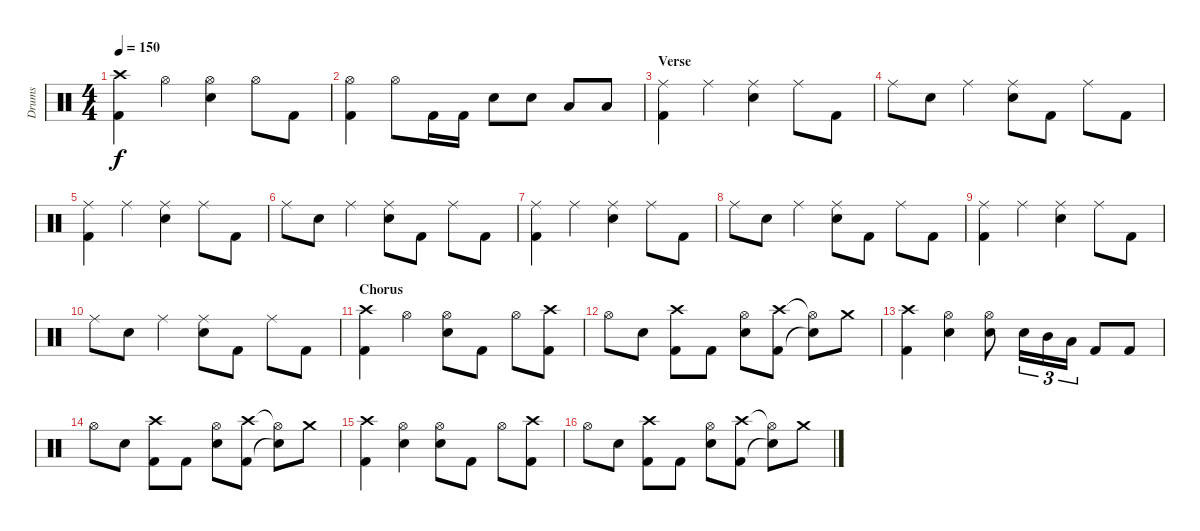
\track ("Drums" "Drums") {instrument percussion}
\staff {score}
\articulation defaults
\ts (4 4)
\tempo 150
\clef neutral
\ks c
("Crash high (hit)" "Kick (hit) 2").4{dy f} "Hi-Hat (open)".4 ("Hi-Hat (open)" "Electric Snare (hit)").4 "Hi-Hat (open)".8 "Kick (hit) 2".8 |
("Hi-Hat (open)" "Kick (hit) 2").4 "Hi-Hat (open)".8 "Kick (hit) 2".16 "Kick (hit) 2".16 "Electric Snare (hit)".8 "Electric Snare (hit)".8 "Low Tom (hit)".8 "Low Tom (hit)".8 |
\section ("" "Verse")
("Ride (middle)" "Kick (hit) 2").4 "Ride (middle)".4 ("Ride (middle)" "Electric Snare (hit)").4 "Ride (middle)".8 "Kick (hit) 2".8 |
"Ride (middle)".8 "Electric Snare (hit)".8 "Ride (middle)".4 ("Ride (middle)" "Electric Snare (hit)").8 "Kick (hit) 2".8 "Ride (middle)".8 "Kick (hit) 2".8 |
("Ride (middle)" "Kick (hit) 2").4 "Ride (middle)".4 ("Ride (middle)" "Electric Snare (hit)").4 "Ride (middle)".8 "Kick (hit) 2".8 |
"Ride (middle)".8 "Electric Snare (hit)".8 "Ride (middle)".4 ("Ride (middle)" "Electric Snare (hit)").8 "Kick (hit) 2".8 "Ride (middle)".8 "Kick (hit) 2".8 |
("Ride (middle)" "Kick (hit) 2").4 "Ride (middle)".4 ("Ride (middle)" "Electric Snare (hit)").4 "Ride (middle)".8 "Kick (hit) 2".8 |
"Ride (middle)".8 "Electric Snare (hit)".8 "Ride (middle)".4 ("Ride (middle)" "Electric Snare (hit)").8 "Kick (hit) 2".8 "Ride (middle)".8 "Kick (hit) 2".8 |
("Ride (middle)" "Kick (hit) 2").4 "Ride (middle)".4 ("Ride (middle)" "Electric Snare (hit)").4 "Ride (middle)".8 "Kick (hit) 2".8 |
"Ride (middle)".8 "Electric Snare (hit)".8 "Ride (middle)".4 ("Ride (middle)" "Electric Snare (hit)").8 "Kick (hit) 2".8 "Ride (middle)".8 "Kick (hit) 2".8 |
\section ("" "Chorus")
("Crash high (hit)" "Kick (hit) 2").4 "Hi-Hat (open)".4 ("Hi-Hat (open)" "Electric Snare (hit)").8 "Kick (hit) 2".8 "Hi-Hat (open)".8 ("Crash high (hit)" "Kick (hit) 2").8 |
"Hi-Hat (open)".8 "Electric Snare (hit)".8 ("Crash high (hit)" "Kick (hit) 2").8 "Kick (hit) 2".8 ("Hi-Hat (open)" "Electric Snare (hit)").8 ("Crash high (hit)" "Kick (hit) 2").8 ("Hi-Hat (open)"{t} "Snare (hit)"{t}).8 "Crash medium (hit)".8 |
("Crash high (hit)" "Kick (hit) 2").4 ("Hi-Hat (open)" "Electric Snare (hit)").4 ("Hi-Hat (open)" "Electric Snare (hit)").8 "Electric Snare (hit)".16{tu (3 2)} "Mid Tom (hit)".16{tu (3 2)} "Low Tom (hit)".16{tu (3 2)} "Kick (hit) 2".8 "Kick (hit) 2".8 |
"Hi-Hat (open)".8 "Electric Snare (hit)".8 ("Crash high (hit)" "Kick (hit) 2").8 "Kick (hit) 2".8 ("Hi-Hat (open)" "Electric Snare (hit)").8 ("Crash high (hit)" "Kick (hit) 2").8 ("Hi-Hat (open)"{t} "Snare (hit)"{t}).8 "Crash medium (hit)".8 |
("Crash high (hit)" "Kick (hit) 2").4 ("Hi-Hat (open)" "Electric Snare (hit)").4 ("Hi-Hat (open)" "Electric Snare (hit)").8 "Kick (hit) 2".8 "Hi-Hat (open)".8 ("Crash high (hit)" "Kick (hit) 2").8 |
"Hi-Hat (open)".8 "Electric Snare (hit)".8 ("Crash high (hit)" "Kick (hit) 2").8 "Kick (hit) 2".8 ("Hi-Hat (open)" "Electric Snare (hit)").8 ("Crash high (hit)" "Kick (hit) 2").8 ("Hi-Hat (open)"{t} "Snare (hit)"{t}).8 "Crash medium (hit)".8
